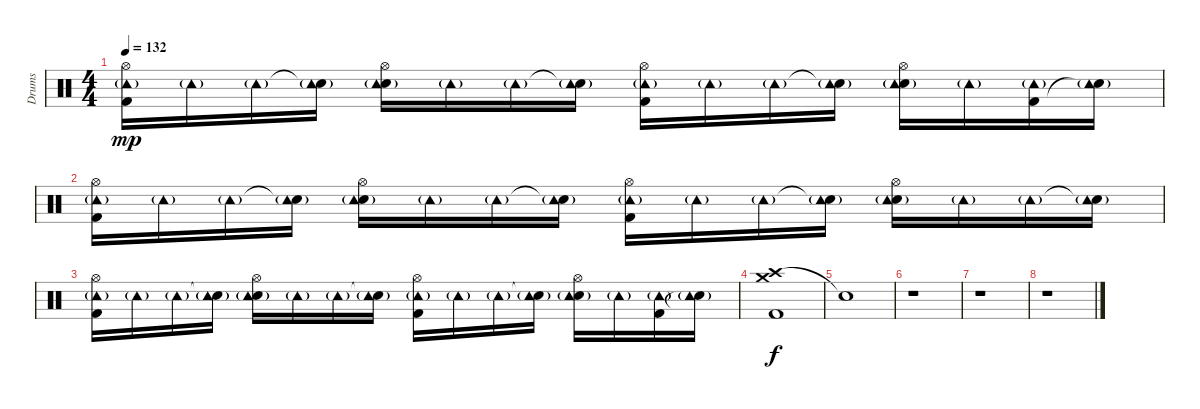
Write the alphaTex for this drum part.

\track ("Drums" "Drums") {instrument percussion}
\staff {score}
\articulation defaults
\ts (4 4)
\tempo 132
\clef neutral
\ks c
("Hi-Hat (open)" "Kick (hit) 2" "Tambourine (hit)"{g}).16{dy mp} "Tambourine (hit)"{g}.16 "Tambourine (hit)"{g}.16 ("Snare (hit)"{t} "Tambourine (hit)"{g}).16 ("Hi-Hat (open)" "Snare (hit) 2" "Tambourine (hit)"{g}).16 "Tambourine (hit)"{g}.16 "Tambourine (hit)"{g}.16 ("Snare (hit)"{t} "Tambourine (hit)"{g}).16 ("Hi-Hat (open)" "Kick (hit) 2" "Tambourine (hit)"{g}).16 "Tambourine (hit)"{g}.16 "Tambourine (hit)"{g}.16 ("Snare (hit)"{t} "Tambourine (hit)"{g}).16 ("Hi-Hat (open)" "Snare (hit) 2" "Tambourine (hit)"{g}).16 "Tambourine (hit)"{g}.16 ("Kick (hit) 2" "Tambourine (hit)"{g}).16 ("Snare (hit)"{t} "Tambourine (hit)"{g}).16 |
("Hi-Hat (open)" "Kick (hit) 2" "Tambourine (hit)"{g}).16 "Tambourine (hit)"{g}.16 "Tambourine (hit)"{g}.16 ("Snare (hit)"{t} "Tambourine (hit)"{g}).16 ("Hi-Hat (open)" "Snare (hit) 2" "Tambourine (hit)"{g}).16 "Tambourine (hit)"{g}.16 "Tambourine (hit)"{g}.16 ("Snare (hit)"{t} "Tambourine (hit)"{g}).16 ("Hi-Hat (open)" "Kick (hit) 2" "Tambourine (hit)"{g}).16 "Tambourine (hit)"{g}.16 "Tambourine (hit)"{g}.16 ("Snare (hit)"{t} "Tambourine (hit)"{g}).16 ("Hi-Hat (open)" "Snare (hit) 2" "Tambourine (hit)"{g}).16 "Tambourine (hit)"{g}.16 "Tambourine (hit)"{g}.16 ("Snare (hit)"{t} "Tambourine (hit)"{g}).16 |
("Hi-Hat (open)" "Kick (hit) 2" "Tambourine (hit)"{g}).16 "Tambourine (hit)"{g}.16 "Tambourine (hit)"{g}.16 ("Snare (hit)"{t} "Tambourine (hit)"{g}).16 ("Hi-Hat (open)" "Snare (hit) 2" "Tambourine (hit)"{g}).16 "Tambourine (hit)"{g}.16 "Tambourine (hit)"{g}.16 ("Snare (hit)"{t} "Tambourine (hit)"{g}).16 ("Hi-Hat (open)" "Kick (hit) 2" "Tambourine (hit)"{g}).16 "Tambourine (hit)"{g}.16 "Tambourine (hit)"{g}.16 ("Snare (hit)"{t} "Tambourine (hit)"{g}).16 ("Hi-Hat (open)" "Snare (hit) 2" "Tambourine (hit)"{g}).16 "Tambourine (hit)"{g}.16 ("Kick (hit) 2" "Tambourine (hit)"{g}).16 ("Snare (hit)"{t} "Tambourine (hit)"{g}).16 |
("Crash high (hit)" "Kick (hit) 2" "Crash medium (hit)").1{dy f} |
"Snare (hit)"{t}.1 |
r.1 |
r.1 |
r.1
